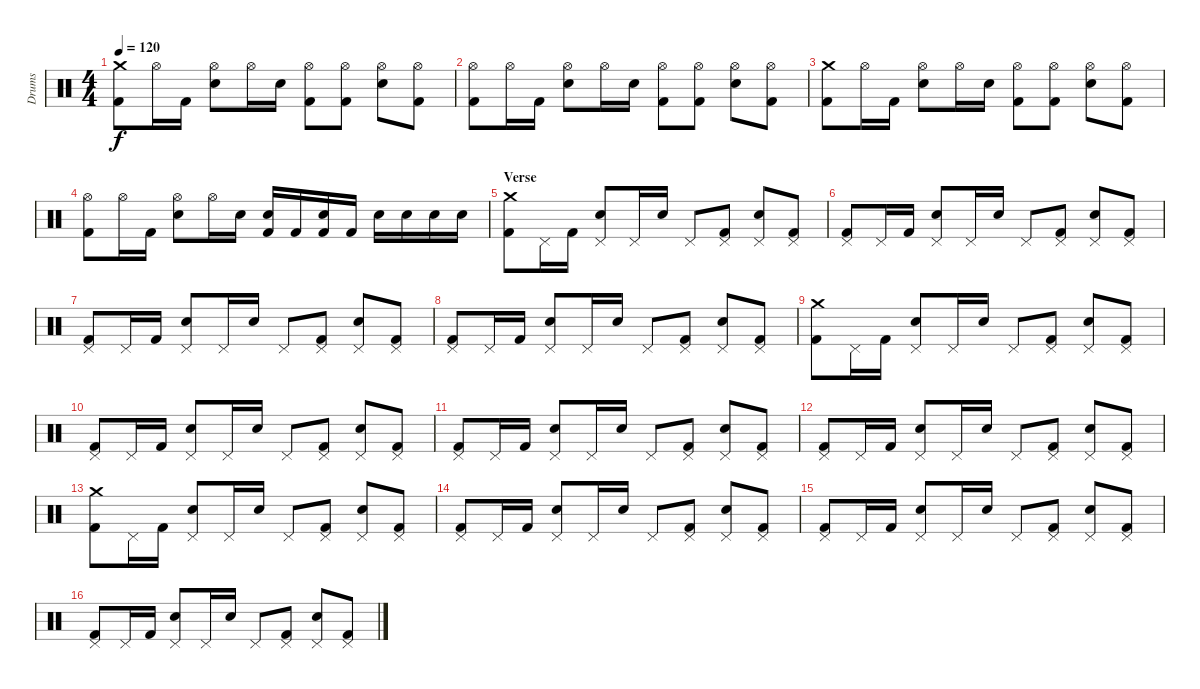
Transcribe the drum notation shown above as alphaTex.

\track ("Drums" "Drums") {instrument percussion}
\staff {score}
\articulation defaults
\ts (4 4)
\tempo 120
\clef neutral
\ks c
("Crash medium (hit)" "Kick (hit) 2").8{dy f} "Hi-Hat (open)".16 "Kick (hit) 2".16 ("Hi-Hat (open)" "Electric Snare (hit)").8 "Hi-Hat (open)".16 "Electric Snare (hit)".16 ("Hi-Hat (open)" "Kick (hit) 2").8 ("Hi-Hat (open)" "Kick (hit) 2").8 ("Hi-Hat (open)" "Electric Snare (hit)").8 ("Hi-Hat (open)" "Kick (hit) 2").8 |
("Hi-Hat (open)" "Kick (hit) 2").8 "Hi-Hat (open)".16 "Kick (hit) 2".16 ("Hi-Hat (open)" "Electric Snare (hit)").8 "Hi-Hat (open)".16 "Electric Snare (hit)".16 ("Hi-Hat (open)" "Kick (hit) 2").8 ("Hi-Hat (open)" "Kick (hit) 2").8 ("Hi-Hat (open)" "Electric Snare (hit)").8 ("Hi-Hat (open)" "Kick (hit) 2").8 |
("Crash medium (hit)" "Kick (hit) 2").8 "Hi-Hat (open)".16 "Kick (hit) 2".16 ("Hi-Hat (open)" "Electric Snare (hit)").8 "Hi-Hat (open)".16 "Electric Snare (hit)".16 ("Hi-Hat (open)" "Kick (hit) 2").8 ("Hi-Hat (open)" "Kick (hit) 2").8 ("Hi-Hat (open)" "Electric Snare (hit)").8 ("Hi-Hat (open)" "Kick (hit) 2").8 |
("Hi-Hat (open)" "Kick (hit) 2").8 "Hi-Hat (open)".16 "Kick (hit) 2".16 ("Hi-Hat (open)" "Electric Snare (hit)").8 "Hi-Hat (open)".16 "Electric Snare (hit)".16 ("Electric Snare (hit)" "Kick (hit) 2").16 "Kick (hit) 2".16 ("Electric Snare (hit)" "Kick (hit) 2").16 "Kick (hit) 2".16 "Electric Snare (hit)".16 "Electric Snare (hit)".16 "Electric Snare (hit)".16 "Electric Snare (hit)".16 |
\section ("" "Verse")
("Crash medium (hit)" "Kick (hit) 2").8 "Pedal Hi-Hat (hit)".16 "Kick (hit) 2".16 ("Pedal Hi-Hat (hit)" "Electric Snare (hit)").8 "Pedal Hi-Hat (hit)".16 "Electric Snare (hit)".16 "Pedal Hi-Hat (hit)".8 ("Pedal Hi-Hat (hit)" "Kick (hit) 2").8 ("Pedal Hi-Hat (hit)" "Electric Snare (hit)").8 ("Pedal Hi-Hat (hit)" "Kick (hit) 2").8 |
("Pedal Hi-Hat (hit)" "Kick (hit) 2").8 "Pedal Hi-Hat (hit)".16 "Kick (hit) 2".16 ("Pedal Hi-Hat (hit)" "Electric Snare (hit)").8 "Pedal Hi-Hat (hit)".16 "Electric Snare (hit)".16 "Pedal Hi-Hat (hit)".8 ("Pedal Hi-Hat (hit)" "Kick (hit) 2").8 ("Pedal Hi-Hat (hit)" "Electric Snare (hit)").8 ("Pedal Hi-Hat (hit)" "Kick (hit) 2").8 |
("Pedal Hi-Hat (hit)" "Kick (hit) 2").8 "Pedal Hi-Hat (hit)".16 "Kick (hit) 2".16 ("Pedal Hi-Hat (hit)" "Electric Snare (hit)").8 "Pedal Hi-Hat (hit)".16 "Electric Snare (hit)".16 "Pedal Hi-Hat (hit)".8 ("Pedal Hi-Hat (hit)" "Kick (hit) 2").8 ("Pedal Hi-Hat (hit)" "Electric Snare (hit)").8 ("Pedal Hi-Hat (hit)" "Kick (hit) 2").8 |
("Pedal Hi-Hat (hit)" "Kick (hit) 2").8 "Pedal Hi-Hat (hit)".16 "Kick (hit) 2".16 ("Pedal Hi-Hat (hit)" "Electric Snare (hit)").8 "Pedal Hi-Hat (hit)".16 "Electric Snare (hit)".16 "Pedal Hi-Hat (hit)".8 ("Pedal Hi-Hat (hit)" "Kick (hit) 2").8 ("Pedal Hi-Hat (hit)" "Electric Snare (hit)").8 ("Pedal Hi-Hat (hit)" "Kick (hit) 2").8 |
("Crash medium (hit)" "Kick (hit) 2").8 "Pedal Hi-Hat (hit)".16 "Kick (hit) 2".16 ("Pedal Hi-Hat (hit)" "Electric Snare (hit)").8 "Pedal Hi-Hat (hit)".16 "Electric Snare (hit)".16 "Pedal Hi-Hat (hit)".8 ("Pedal Hi-Hat (hit)" "Kick (hit) 2").8 ("Pedal Hi-Hat (hit)" "Electric Snare (hit)").8 ("Pedal Hi-Hat (hit)" "Kick (hit) 2").8 |
("Pedal Hi-Hat (hit)" "Kick (hit) 2").8 "Pedal Hi-Hat (hit)".16 "Kick (hit) 2".16 ("Pedal Hi-Hat (hit)" "Electric Snare (hit)").8 "Pedal Hi-Hat (hit)".16 "Electric Snare (hit)".16 "Pedal Hi-Hat (hit)".8 ("Pedal Hi-Hat (hit)" "Kick (hit) 2").8 ("Pedal Hi-Hat (hit)" "Electric Snare (hit)").8 ("Pedal Hi-Hat (hit)" "Kick (hit) 2").8 |
("Pedal Hi-Hat (hit)" "Kick (hit) 2").8 "Pedal Hi-Hat (hit)".16 "Kick (hit) 2".16 ("Pedal Hi-Hat (hit)" "Electric Snare (hit)").8 "Pedal Hi-Hat (hit)".16 "Electric Snare (hit)".16 "Pedal Hi-Hat (hit)".8 ("Pedal Hi-Hat (hit)" "Kick (hit) 2").8 ("Pedal Hi-Hat (hit)" "Electric Snare (hit)").8 ("Pedal Hi-Hat (hit)" "Kick (hit) 2").8 |
("Pedal Hi-Hat (hit)" "Kick (hit) 2").8 "Pedal Hi-Hat (hit)".16 "Kick (hit) 2".16 ("Pedal Hi-Hat (hit)" "Electric Snare (hit)").8 "Pedal Hi-Hat (hit)".16 "Electric Snare (hit)".16 "Pedal Hi-Hat (hit)".8 ("Pedal Hi-Hat (hit)" "Kick (hit) 2").8 ("Pedal Hi-Hat (hit)" "Electric Snare (hit)").8 ("Pedal Hi-Hat (hit)" "Kick (hit) 2").8 |
("Crash medium (hit)" "Kick (hit) 2").8 "Pedal Hi-Hat (hit)".16 "Kick (hit) 2".16 ("Pedal Hi-Hat (hit)" "Electric Snare (hit)").8 "Pedal Hi-Hat (hit)".16 "Electric Snare (hit)".16 "Pedal Hi-Hat (hit)".8 ("Pedal Hi-Hat (hit)" "Kick (hit) 2").8 ("Pedal Hi-Hat (hit)" "Electric Snare (hit)").8 ("Pedal Hi-Hat (hit)" "Kick (hit) 2").8 |
("Pedal Hi-Hat (hit)" "Kick (hit) 2").8 "Pedal Hi-Hat (hit)".16 "Kick (hit) 2".16 ("Pedal Hi-Hat (hit)" "Electric Snare (hit)").8 "Pedal Hi-Hat (hit)".16 "Electric Snare (hit)".16 "Pedal Hi-Hat (hit)".8 ("Pedal Hi-Hat (hit)" "Kick (hit) 2").8 ("Pedal Hi-Hat (hit)" "Electric Snare (hit)").8 ("Pedal Hi-Hat (hit)" "Kick (hit) 2").8 |
("Pedal Hi-Hat (hit)" "Kick (hit) 2").8 "Pedal Hi-Hat (hit)".16 "Kick (hit) 2".16 ("Pedal Hi-Hat (hit)" "Electric Snare (hit)").8 "Pedal Hi-Hat (hit)".16 "Electric Snare (hit)".16 "Pedal Hi-Hat (hit)".8 ("Pedal Hi-Hat (hit)" "Kick (hit) 2").8 ("Pedal Hi-Hat (hit)" "Electric Snare (hit)").8 ("Pedal Hi-Hat (hit)" "Kick (hit) 2").8 |
("Pedal Hi-Hat (hit)" "Kick (hit) 2").8 "Pedal Hi-Hat (hit)".16 "Kick (hit) 2".16 ("Pedal Hi-Hat (hit)" "Electric Snare (hit)").8 "Pedal Hi-Hat (hit)".16 "Electric Snare (hit)".16 "Pedal Hi-Hat (hit)".8 ("Pedal Hi-Hat (hit)" "Kick (hit) 2").8 ("Pedal Hi-Hat (hit)" "Electric Snare (hit)").8 ("Pedal Hi-Hat (hit)" "Kick (hit) 2").8
